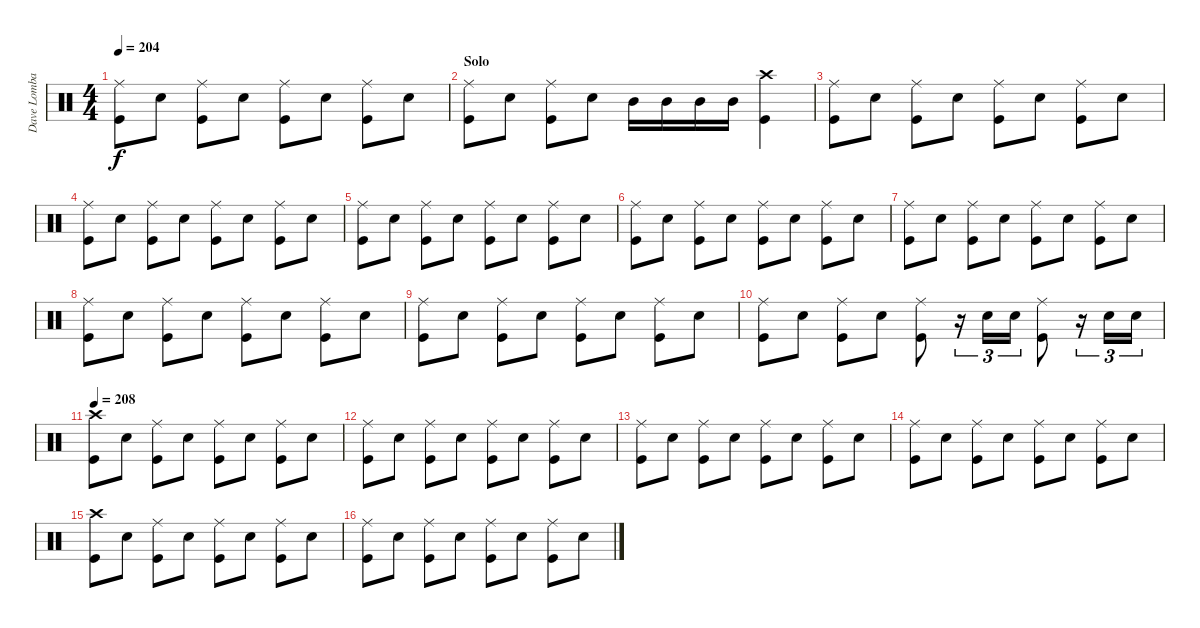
\track ("Dave Lombardo" "Dave Lomba") {instrument percussion}
\staff {score}
\articulation defaults
\ts (4 4)
\tempo 204
\clef neutral
\ks c
("Ride (middle)" "Kick (hit)").8{dy f} "Electric Snare (hit)".8 ("Ride (middle)" "Kick (hit)").8 "Electric Snare (hit)".8 ("Ride (middle)" "Kick (hit)").8 "Electric Snare (hit)".8 ("Ride (middle)" "Kick (hit)").8 "Electric Snare (hit)".8 |
\section ("" "Solo")
("Ride (middle)" "Kick (hit)").8 "Electric Snare (hit)".8 ("Ride (middle)" "Kick (hit)").8 "Electric Snare (hit)".8 "Mid Tom (hit)".16 "Mid Tom (hit)".16 "Mid Tom (hit)".16 "Mid Tom (hit)".16 ("Crash high (hit)" "Kick (hit)").4 |
("Ride (middle)" "Kick (hit)").8 "Electric Snare (hit)".8 ("Ride (middle)" "Kick (hit)").8 "Electric Snare (hit)".8 ("Ride (middle)" "Kick (hit)").8 "Electric Snare (hit)".8 ("Ride (middle)" "Kick (hit)").8 "Electric Snare (hit)".8 |
("Ride (middle)" "Kick (hit)").8 "Electric Snare (hit)".8 ("Ride (middle)" "Kick (hit)").8 "Electric Snare (hit)".8 ("Ride (middle)" "Kick (hit)").8 "Electric Snare (hit)".8 ("Ride (middle)" "Kick (hit)").8 "Electric Snare (hit)".8 |
("Ride (middle)" "Kick (hit)").8 "Electric Snare (hit)".8 ("Ride (middle)" "Kick (hit)").8 "Electric Snare (hit)".8 ("Ride (middle)" "Kick (hit)").8 "Electric Snare (hit)".8 ("Ride (middle)" "Kick (hit)").8 "Electric Snare (hit)".8 |
("Ride (middle)" "Kick (hit)").8 "Electric Snare (hit)".8 ("Ride (middle)" "Kick (hit)").8 "Electric Snare (hit)".8 ("Ride (middle)" "Kick (hit)").8 "Electric Snare (hit)".8 ("Ride (middle)" "Kick (hit)").8 "Electric Snare (hit)".8 |
("Ride (middle)" "Kick (hit)").8 "Electric Snare (hit)".8 ("Ride (middle)" "Kick (hit)").8 "Electric Snare (hit)".8 ("Ride (middle)" "Kick (hit)").8 "Electric Snare (hit)".8 ("Ride (middle)" "Kick (hit)").8 "Electric Snare (hit)".8 |
("Ride (middle)" "Kick (hit)").8 "Electric Snare (hit)".8 ("Ride (middle)" "Kick (hit)").8 "Electric Snare (hit)".8 ("Ride (middle)" "Kick (hit)").8 "Electric Snare (hit)".8 ("Ride (middle)" "Kick (hit)").8 "Electric Snare (hit)".8 |
("Ride (middle)" "Kick (hit)").8 "Electric Snare (hit)".8 ("Ride (middle)" "Kick (hit)").8 "Electric Snare (hit)".8 ("Ride (middle)" "Kick (hit)").8 "Electric Snare (hit)".8 ("Ride (middle)" "Kick (hit)").8 "Electric Snare (hit)".8 |
("Ride (middle)" "Kick (hit)").8 "Electric Snare (hit)".8 ("Ride (middle)" "Kick (hit)").8 "Electric Snare (hit)".8 ("Ride (middle)" "Kick (hit)").8 r.16{tu (3 2)} "Electric Snare (hit)".16{tu (3 2)} "Electric Snare (hit)".16{tu (3 2)} ("Ride (middle)" "Kick (hit)").8 r.16{tu (3 2)} "Electric Snare (hit)".16{tu (3 2)} "Electric Snare (hit)".16{tu (3 2)} |
\tempo 208
("Crash high (hit)" "Kick (hit)").8 "Electric Snare (hit)".8 ("Ride (middle)" "Kick (hit)").8 "Electric Snare (hit)".8 ("Ride (middle)" "Kick (hit)").8 "Electric Snare (hit)".8 ("Ride (middle)" "Kick (hit)").8 "Electric Snare (hit)".8 |
("Ride (middle)" "Kick (hit)").8 "Electric Snare (hit)".8 ("Ride (middle)" "Kick (hit)").8 "Electric Snare (hit)".8 ("Ride (middle)" "Kick (hit)").8 "Electric Snare (hit)".8 ("Ride (middle)" "Kick (hit)").8 "Electric Snare (hit)".8 |
("Ride (middle)" "Kick (hit)").8 "Electric Snare (hit)".8 ("Ride (middle)" "Kick (hit)").8 "Electric Snare (hit)".8 ("Ride (middle)" "Kick (hit)").8 "Electric Snare (hit)".8 ("Ride (middle)" "Kick (hit)").8 "Electric Snare (hit)".8 |
("Ride (middle)" "Kick (hit)").8 "Electric Snare (hit)".8 ("Ride (middle)" "Kick (hit)").8 "Electric Snare (hit)".8 ("Ride (middle)" "Kick (hit)").8 "Electric Snare (hit)".8 ("Ride (middle)" "Kick (hit)").8 "Electric Snare (hit)".8 |
("Crash high (hit)" "Kick (hit)").8 "Electric Snare (hit)".8 ("Ride (middle)" "Kick (hit)").8 "Electric Snare (hit)".8 ("Ride (middle)" "Kick (hit)").8 "Electric Snare (hit)".8 ("Ride (middle)" "Kick (hit)").8 "Electric Snare (hit)".8 |
("Ride (middle)" "Kick (hit)").8 "Electric Snare (hit)".8 ("Ride (middle)" "Kick (hit)").8 "Electric Snare (hit)".8 ("Ride (middle)" "Kick (hit)").8 "Electric Snare (hit)".8 ("Ride (middle)" "Kick (hit)").8 "Electric Snare (hit)".8
